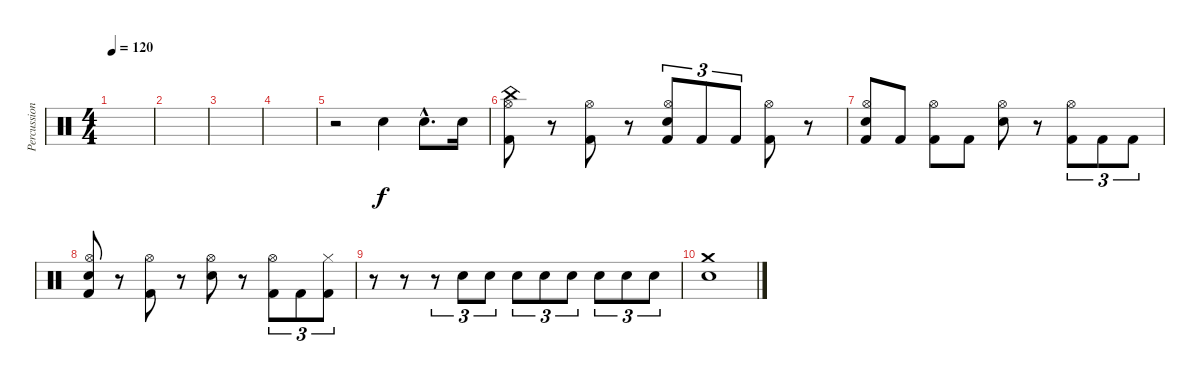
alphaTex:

\track ("Percussion" "Percussion") {instrument percussion}
\staff {score}
\articulation defaults
\ts (4 4)
\tempo 120
\clef neutral
\ks c
|
|
|
|
r.2 "Electric Snare (hit)".4 "Electric Snare (hit)"{hac}.8{d} "Electric Snare (hit)".16 |
("Hi-Hat (open)" "China (hit)" "Kick (hit) 2").8 r.8 ("Hi-Hat (open)" "Kick (hit) 2").8 r.8 ("Hi-Hat (open)" "Electric Snare (hit)" "Kick (hit) 2").8{tu (3 2)} "Kick (hit) 2".8{tu (3 2)} "Kick (hit) 2".8{tu (3 2)} ("Hi-Hat (open)" "Kick (hit) 2").8 r.8 |
("Hi-Hat (open)" "Electric Snare (hit)" "Kick (hit) 2").8 "Kick (hit) 2".8 ("Hi-Hat (open)" "Kick (hit) 2").8 "Kick (hit) 2".8 ("Hi-Hat (open)" "Electric Snare (hit)").8 r.8 ("Hi-Hat (open)" "Kick (hit) 2").8{tu (3 2)} "Kick (hit) 2".8{tu (3 2)} "Kick (hit) 2".8{tu (3 2)} |
("Hi-Hat (open)" "Electric Snare (hit)" "Kick (hit) 2").8 r.8 ("Hi-Hat (open)" "Kick (hit) 2").8 r.8 ("Hi-Hat (open)" "Electric Snare (hit)").8 r.8 ("Hi-Hat (open)" "Kick (hit) 2").8{tu (3 2)} "Kick (hit) 2".8{tu (3 2)} ("Hi-Hat (closed)" "Kick (hit) 2").8{tu (3 2)} |
r.8 r.8 r.8{tu (3 2)} "Electric Snare (hit)".8{tu (3 2)} "Electric Snare (hit)".8{tu (3 2)} "Electric Snare (hit)".8{tu (3 2)} "Electric Snare (hit)".8{tu (3 2)} "Electric Snare (hit)".8{tu (3 2)} "Electric Snare (hit)".8{tu (3 2)} "Electric Snare (hit)".8{tu (3 2)} "Electric Snare (hit)".8{tu (3 2)} |
("Crash medium (hit)" "Electric Snare (hit)").1
